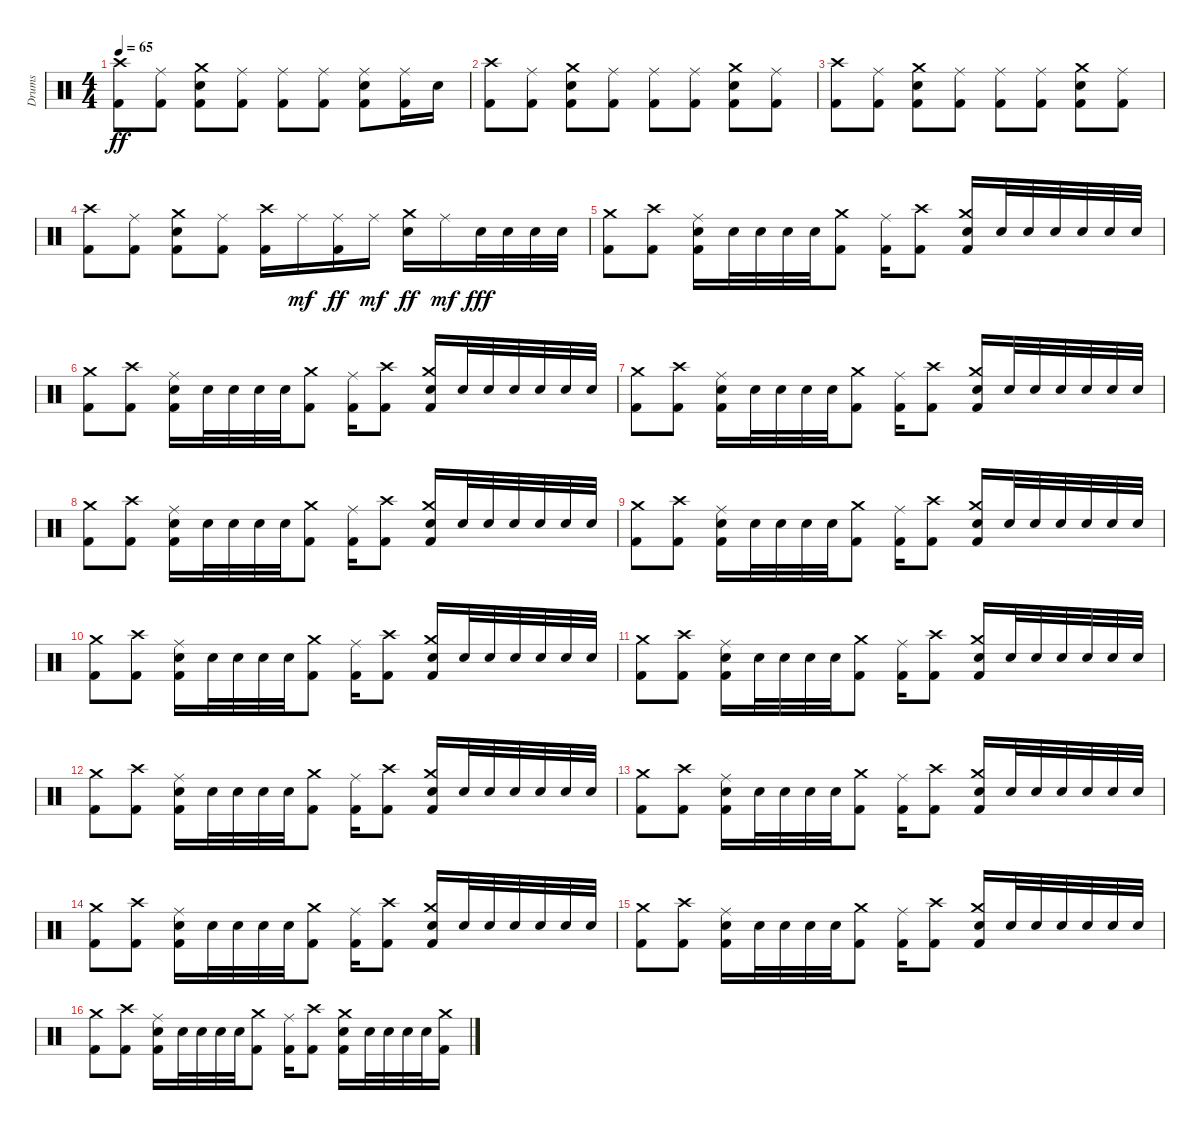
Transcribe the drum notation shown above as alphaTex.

\track ("Drums" "Drums") {instrument percussion}
\staff {score}
\articulation defaults
\ts (4 4)
\tempo 65
\clef neutral
\ks c
("Crash high (hit)" "Kick (hit) 2").8{dy ff} ("Ride (middle)" "Kick (hit) 2").8 ("Crash medium (hit)" "Snare (hit) 2" "Kick (hit) 2").8 ("Ride (middle)" "Kick (hit) 2").8 ("Ride (middle)" "Kick (hit) 2").8 ("Ride (middle)" "Kick (hit) 2").8 ("Ride (middle)" "Snare (hit) 2" "Kick (hit) 2").8 ("Ride (middle)" "Kick (hit) 2").16 "Snare (hit) 2".16 |
("Crash high (hit)" "Kick (hit) 2").8 ("Ride (middle)" "Kick (hit) 2").8 ("Crash medium (hit)" "Snare (hit) 2" "Kick (hit) 2").8 ("Ride (middle)" "Kick (hit) 2").8 ("Ride (middle)" "Kick (hit) 2").8 ("Ride (middle)" "Kick (hit) 2").8 ("Crash medium (hit)" "Snare (hit) 2" "Kick (hit) 2").8 ("Ride (middle)" "Kick (hit) 2").8 |
("Crash high (hit)" "Kick (hit) 2").8 ("Ride (middle)" "Kick (hit) 2").8 ("Crash medium (hit)" "Snare (hit) 2" "Kick (hit) 2").8 ("Ride (middle)" "Kick (hit) 2").8 ("Ride (middle)" "Kick (hit) 2").8 ("Ride (middle)" "Kick (hit) 2").8 ("Crash medium (hit)" "Snare (hit) 2" "Kick (hit) 2").8 ("Ride (middle)" "Kick (hit) 2").8 |
("Crash high (hit)" "Kick (hit) 2").8 ("Ride (middle)" "Kick (hit) 2").8 ("Crash medium (hit)" "Snare (hit) 2" "Kick (hit) 2").8 ("Ride (middle)" "Kick (hit) 2").8 ("Crash high (hit)" "Kick (hit) 2").16 "Ride (middle)".16{dy mf} ("Ride (middle)" "Kick (hit) 2").16{dy ff} "Ride (middle)".16{dy mf} ("Crash medium (hit)" "Snare (hit) 2").16{dy ff} "Ride (middle)".16{dy mf} "Snare (hit) 2".32{dy fff} "Snare (hit) 2".32 "Snare (hit) 2".32 "Snare (hit) 2".32 |
("Crash medium (hit)" "Kick (hit) 2").8 ("Crash high (hit)" "Kick (hit) 2").8 ("Ride (middle)" "Snare (hit) 2" "Kick (hit) 2").16 "Snare (hit) 2".32 "Snare (hit) 2".32 "Snare (hit) 2".32 "Snare (hit) 2".32 ("Crash medium (hit)" "Kick (hit) 2").8 ("Ride (middle)" "Kick (hit) 2").16 ("Crash high (hit)" "Kick (hit) 2").8 ("Crash medium (hit)" "Snare (hit) 2" "Kick (hit) 2").16 "Snare (hit) 2".32 "Snare (hit) 2".32 "Snare (hit) 2".32 "Snare (hit) 2".32 "Snare (hit) 2".32 "Snare (hit) 2".32 |
("Crash medium (hit)" "Kick (hit) 2").8 ("Crash high (hit)" "Kick (hit) 2").8 ("Ride (middle)" "Snare (hit) 2" "Kick (hit) 2").16 "Snare (hit) 2".32 "Snare (hit) 2".32 "Snare (hit) 2".32 "Snare (hit) 2".32 ("Crash medium (hit)" "Kick (hit) 2").8 ("Ride (middle)" "Kick (hit) 2").16 ("Crash high (hit)" "Kick (hit) 2").8 ("Crash medium (hit)" "Snare (hit) 2" "Kick (hit) 2").16 "Snare (hit) 2".32 "Snare (hit) 2".32 "Snare (hit) 2".32 "Snare (hit) 2".32 "Snare (hit) 2".32 "Snare (hit) 2".32 |
("Crash medium (hit)" "Kick (hit) 2").8 ("Crash high (hit)" "Kick (hit) 2").8 ("Ride (middle)" "Snare (hit) 2" "Kick (hit) 2").16 "Snare (hit) 2".32 "Snare (hit) 2".32 "Snare (hit) 2".32 "Snare (hit) 2".32 ("Crash medium (hit)" "Kick (hit) 2").8 ("Ride (middle)" "Kick (hit) 2").16 ("Crash high (hit)" "Kick (hit) 2").8 ("Crash medium (hit)" "Snare (hit) 2" "Kick (hit) 2").16 "Snare (hit) 2".32 "Snare (hit) 2".32 "Snare (hit) 2".32 "Snare (hit) 2".32 "Snare (hit) 2".32 "Snare (hit) 2".32 |
("Crash medium (hit)" "Kick (hit) 2").8 ("Crash high (hit)" "Kick (hit) 2").8 ("Ride (middle)" "Snare (hit) 2" "Kick (hit) 2").16 "Snare (hit) 2".32 "Snare (hit) 2".32 "Snare (hit) 2".32 "Snare (hit) 2".32 ("Crash medium (hit)" "Kick (hit) 2").8 ("Ride (middle)" "Kick (hit) 2").16 ("Crash high (hit)" "Kick (hit) 2").8 ("Crash medium (hit)" "Snare (hit) 2" "Kick (hit) 2").16 "Snare (hit) 2".32 "Snare (hit) 2".32 "Snare (hit) 2".32 "Snare (hit) 2".32 "Snare (hit) 2".32 "Snare (hit) 2".32 |
("Crash medium (hit)" "Kick (hit) 2").8 ("Crash high (hit)" "Kick (hit) 2").8 ("Ride (middle)" "Snare (hit) 2" "Kick (hit) 2").16 "Snare (hit) 2".32 "Snare (hit) 2".32 "Snare (hit) 2".32 "Snare (hit) 2".32 ("Crash medium (hit)" "Kick (hit) 2").8 ("Ride (middle)" "Kick (hit) 2").16 ("Crash high (hit)" "Kick (hit) 2").8 ("Crash medium (hit)" "Snare (hit) 2" "Kick (hit) 2").16 "Snare (hit) 2".32 "Snare (hit) 2".32 "Snare (hit) 2".32 "Snare (hit) 2".32 "Snare (hit) 2".32 "Snare (hit) 2".32 |
("Crash medium (hit)" "Kick (hit) 2").8 ("Crash high (hit)" "Kick (hit) 2").8 ("Ride (middle)" "Snare (hit) 2" "Kick (hit) 2").16 "Snare (hit) 2".32 "Snare (hit) 2".32 "Snare (hit) 2".32 "Snare (hit) 2".32 ("Crash medium (hit)" "Kick (hit) 2").8 ("Ride (middle)" "Kick (hit) 2").16 ("Crash high (hit)" "Kick (hit) 2").8 ("Crash medium (hit)" "Snare (hit) 2" "Kick (hit) 2").16 "Snare (hit) 2".32 "Snare (hit) 2".32 "Snare (hit) 2".32 "Snare (hit) 2".32 "Snare (hit) 2".32 "Snare (hit) 2".32 |
("Crash medium (hit)" "Kick (hit) 2").8 ("Crash high (hit)" "Kick (hit) 2").8 ("Ride (middle)" "Snare (hit) 2" "Kick (hit) 2").16 "Snare (hit) 2".32 "Snare (hit) 2".32 "Snare (hit) 2".32 "Snare (hit) 2".32 ("Crash medium (hit)" "Kick (hit) 2").8 ("Ride (middle)" "Kick (hit) 2").16 ("Crash high (hit)" "Kick (hit) 2").8 ("Crash medium (hit)" "Snare (hit) 2" "Kick (hit) 2").16 "Snare (hit) 2".32 "Snare (hit) 2".32 "Snare (hit) 2".32 "Snare (hit) 2".32 "Snare (hit) 2".32 "Snare (hit) 2".32 |
("Crash medium (hit)" "Kick (hit) 2").8 ("Crash high (hit)" "Kick (hit) 2").8 ("Ride (middle)" "Snare (hit) 2" "Kick (hit) 2").16 "Snare (hit) 2".32 "Snare (hit) 2".32 "Snare (hit) 2".32 "Snare (hit) 2".32 ("Crash medium (hit)" "Kick (hit) 2").8 ("Ride (middle)" "Kick (hit) 2").16 ("Crash high (hit)" "Kick (hit) 2").8 ("Crash medium (hit)" "Snare (hit) 2" "Kick (hit) 2").16 "Snare (hit) 2".32 "Snare (hit) 2".32 "Snare (hit) 2".32 "Snare (hit) 2".32 "Snare (hit) 2".32 "Snare (hit) 2".32 |
("Crash medium (hit)" "Kick (hit) 2").8 ("Crash high (hit)" "Kick (hit) 2").8 ("Ride (middle)" "Snare (hit) 2" "Kick (hit) 2").16 "Snare (hit) 2".32 "Snare (hit) 2".32 "Snare (hit) 2".32 "Snare (hit) 2".32 ("Crash medium (hit)" "Kick (hit) 2").8 ("Ride (middle)" "Kick (hit) 2").16 ("Crash high (hit)" "Kick (hit) 2").8 ("Crash medium (hit)" "Snare (hit) 2" "Kick (hit) 2").16 "Snare (hit) 2".32 "Snare (hit) 2".32 "Snare (hit) 2".32 "Snare (hit) 2".32 "Snare (hit) 2".32 "Snare (hit) 2".32 |
("Crash medium (hit)" "Kick (hit) 2").8 ("Crash high (hit)" "Kick (hit) 2").8 ("Ride (middle)" "Snare (hit) 2" "Kick (hit) 2").16 "Snare (hit) 2".32 "Snare (hit) 2".32 "Snare (hit) 2".32 "Snare (hit) 2".32 ("Crash medium (hit)" "Kick (hit) 2").8 ("Ride (middle)" "Kick (hit) 2").16 ("Crash high (hit)" "Kick (hit) 2").8 ("Crash medium (hit)" "Snare (hit) 2" "Kick (hit) 2").16 "Snare (hit) 2".32 "Snare (hit) 2".32 "Snare (hit) 2".32 "Snare (hit) 2".32 "Snare (hit) 2".32 "Snare (hit) 2".32 |
("Crash medium (hit)" "Kick (hit) 2").8 ("Crash high (hit)" "Kick (hit) 2").8 ("Ride (middle)" "Snare (hit) 2" "Kick (hit) 2").16 "Snare (hit) 2".32 "Snare (hit) 2".32 "Snare (hit) 2".32 "Snare (hit) 2".32 ("Crash medium (hit)" "Kick (hit) 2").8 ("Ride (middle)" "Kick (hit) 2").16 ("Crash high (hit)" "Kick (hit) 2").8 ("Crash medium (hit)" "Snare (hit) 2" "Kick (hit) 2").16 "Snare (hit) 2".32 "Snare (hit) 2".32 "Snare (hit) 2".32 "Snare (hit) 2".32 "Snare (hit) 2".32 "Snare (hit) 2".32 |
("Crash medium (hit)" "Kick (hit) 2").8 ("Crash high (hit)" "Kick (hit) 2").8 ("Ride (middle)" "Snare (hit) 2" "Kick (hit) 2").16 "Snare (hit) 2".32 "Snare (hit) 2".32 "Snare (hit) 2".32 "Snare (hit) 2".32 ("Crash medium (hit)" "Kick (hit) 2").8 ("Ride (middle)" "Kick (hit) 2").16 ("Crash high (hit)" "Kick (hit) 2").8 ("Crash medium (hit)" "Snare (hit) 2" "Kick (hit) 2").16 "Snare (hit) 2".32 "Snare (hit) 2".32 "Snare (hit) 2".32 "Snare (hit) 2".32 ("Crash medium (hit)" "Kick (hit) 2").16
